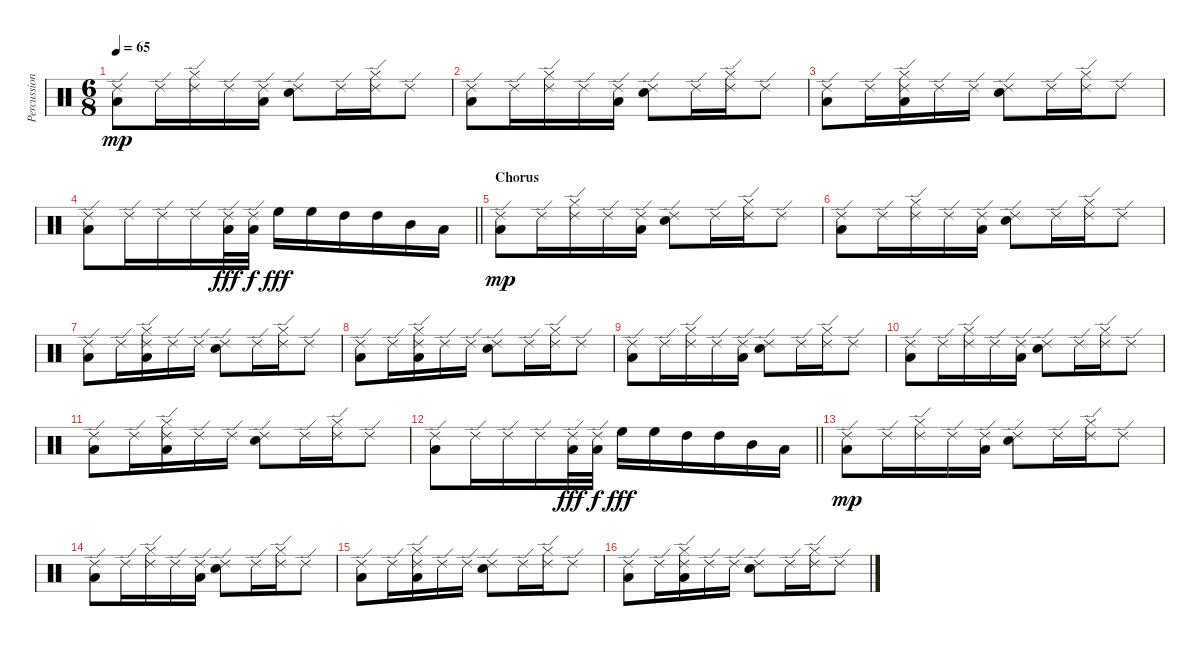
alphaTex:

\track ("Percussions" "Percussion") {instrument percussion}
\staff {score}
\articulation defaults
\ts (6 8)
\tempo 65
\clef neutral
\ks c
("Ride (edge) 2" "Low Tom (hit)").8{dy mp} "Ride (edge) 2".16 ("Ride (edge) 2" "Hi-Hat (closed)").16 "Ride (edge) 2".16 ("Ride (edge) 2" "Low Tom (hit)").16 ("Ride (edge) 2" "Electric Snare (hit)").8 "Ride (edge) 2".16 ("Ride (edge) 2" "Hi-Hat (closed)").16 "Ride (edge) 2".8 |
("Ride (edge) 2" "Low Tom (hit)").8 "Ride (edge) 2".16 ("Ride (edge) 2" "Hi-Hat (closed)").16 "Ride (edge) 2".16 ("Ride (edge) 2" "Low Tom (hit)").16 ("Ride (edge) 2" "Electric Snare (hit)").8 "Ride (edge) 2".16 ("Ride (edge) 2" "Hi-Hat (closed)").16 "Ride (edge) 2".8 |
("Ride (edge) 2" "Low Tom (hit)").8 "Ride (edge) 2".16 ("Ride (edge) 2" "Hi-Hat (closed)" "Low Tom (hit)").16 "Ride (edge) 2".16 "Ride (edge) 2".16 ("Ride (edge) 2" "Electric Snare (hit)").8 "Ride (edge) 2".16 ("Ride (edge) 2" "Hi-Hat (closed)").16 "Ride (edge) 2".8 |
\barLineRight lightlight
("Ride (edge) 2" "Low Tom (hit)").8 "Ride (edge) 2".16 "Ride (edge) 2".16 "Ride (edge) 2".16 ("Ride (edge) 2" "Low Tom (hit)").32{dy fff} ("Ride (edge) 2" "Low Tom (hit)").32{dy f} "High Floor Tom (hit)".16{dy fff} "High Floor Tom (hit)".16 "High Tom (hit)".16 "High Tom (hit)".16 "Mid Tom (hit)".16 "Low Tom (hit)".16 |
\section ("" "Chorus")
("Ride (edge) 2" "Low Tom (hit)").8{dy mp} "Ride (edge) 2".16 ("Ride (edge) 2" "Hi-Hat (closed)").16 "Ride (edge) 2".16 ("Ride (edge) 2" "Low Tom (hit)").16 ("Ride (edge) 2" "Electric Snare (hit)").8 "Ride (edge) 2".16 ("Ride (edge) 2" "Hi-Hat (closed)").16 "Ride (edge) 2".8 |
("Ride (edge) 2" "Low Tom (hit)").8 "Ride (edge) 2".16 ("Ride (edge) 2" "Hi-Hat (closed)").16 "Ride (edge) 2".16 ("Ride (edge) 2" "Low Tom (hit)").16 ("Ride (edge) 2" "Electric Snare (hit)").8 "Ride (edge) 2".16 ("Ride (edge) 2" "Hi-Hat (closed)").16 "Ride (edge) 2".8 |
("Ride (edge) 2" "Low Tom (hit)").8 "Ride (edge) 2".16 ("Ride (edge) 2" "Hi-Hat (closed)" "Low Tom (hit)").16 "Ride (edge) 2".16 "Ride (edge) 2".16 ("Ride (edge) 2" "Electric Snare (hit)").8 "Ride (edge) 2".16 ("Ride (edge) 2" "Hi-Hat (closed)").16 "Ride (edge) 2".8 |
("Ride (edge) 2" "Low Tom (hit)").8 "Ride (edge) 2".16 ("Ride (edge) 2" "Hi-Hat (closed)" "Low Tom (hit)").16 "Ride (edge) 2".16 "Ride (edge) 2".16 ("Ride (edge) 2" "Electric Snare (hit)").8 "Ride (edge) 2".16 ("Ride (edge) 2" "Hi-Hat (closed)").16 "Ride (edge) 2".8 |
("Ride (edge) 2" "Low Tom (hit)").8 "Ride (edge) 2".16 ("Ride (edge) 2" "Hi-Hat (closed)").16 "Ride (edge) 2".16 ("Ride (edge) 2" "Low Tom (hit)").16 ("Ride (edge) 2" "Electric Snare (hit)").8 "Ride (edge) 2".16 ("Ride (edge) 2" "Hi-Hat (closed)").16 "Ride (edge) 2".8 |
("Ride (edge) 2" "Low Tom (hit)").8 "Ride (edge) 2".16 ("Ride (edge) 2" "Hi-Hat (closed)").16 "Ride (edge) 2".16 ("Ride (edge) 2" "Low Tom (hit)").16 ("Ride (edge) 2" "Electric Snare (hit)").8 "Ride (edge) 2".16 ("Ride (edge) 2" "Hi-Hat (closed)").16 "Ride (edge) 2".8 |
("Ride (edge) 2" "Low Tom (hit)").8 "Ride (edge) 2".16 ("Ride (edge) 2" "Hi-Hat (closed)" "Low Tom (hit)").16 "Ride (edge) 2".16 "Ride (edge) 2".16 ("Ride (edge) 2" "Electric Snare (hit)").8 "Ride (edge) 2".16 ("Ride (edge) 2" "Hi-Hat (closed)").16 "Ride (edge) 2".8 |
\barLineRight lightlight
("Ride (edge) 2" "Low Tom (hit)").8 "Ride (edge) 2".16 "Ride (edge) 2".16 "Ride (edge) 2".16 ("Ride (edge) 2" "Low Tom (hit)").32{dy fff} ("Ride (edge) 2" "Low Tom (hit)").32{dy f} "High Floor Tom (hit)".16{dy fff} "High Floor Tom (hit)".16 "High Tom (hit)".16 "High Tom (hit)".16 "Mid Tom (hit)".16 "Low Tom (hit)".16 |
("Ride (edge) 2" "Low Tom (hit)").8{dy mp} "Ride (edge) 2".16 ("Ride (edge) 2" "Hi-Hat (closed)").16 "Ride (edge) 2".16 ("Ride (edge) 2" "Low Tom (hit)").16 ("Ride (edge) 2" "Electric Snare (hit)").8 "Ride (edge) 2".16 ("Ride (edge) 2" "Hi-Hat (closed)").16 "Ride (edge) 2".8 |
("Ride (edge) 2" "Low Tom (hit)").8 "Ride (edge) 2".16 ("Ride (edge) 2" "Hi-Hat (closed)").16 "Ride (edge) 2".16 ("Ride (edge) 2" "Low Tom (hit)").16 ("Ride (edge) 2" "Electric Snare (hit)").8 "Ride (edge) 2".16 ("Ride (edge) 2" "Hi-Hat (closed)").16 "Ride (edge) 2".8 |
("Ride (edge) 2" "Low Tom (hit)").8 "Ride (edge) 2".16 ("Ride (edge) 2" "Hi-Hat (closed)" "Low Tom (hit)").16 "Ride (edge) 2".16 "Ride (edge) 2".16 ("Ride (edge) 2" "Electric Snare (hit)").8 "Ride (edge) 2".16 ("Ride (edge) 2" "Hi-Hat (closed)").16 "Ride (edge) 2".8 |
("Ride (edge) 2" "Low Tom (hit)").8 "Ride (edge) 2".16 ("Ride (edge) 2" "Hi-Hat (closed)" "Low Tom (hit)").16 "Ride (edge) 2".16 "Ride (edge) 2".16 ("Ride (edge) 2" "Electric Snare (hit)").8 "Ride (edge) 2".16 ("Ride (edge) 2" "Hi-Hat (closed)").16 "Ride (edge) 2".8
